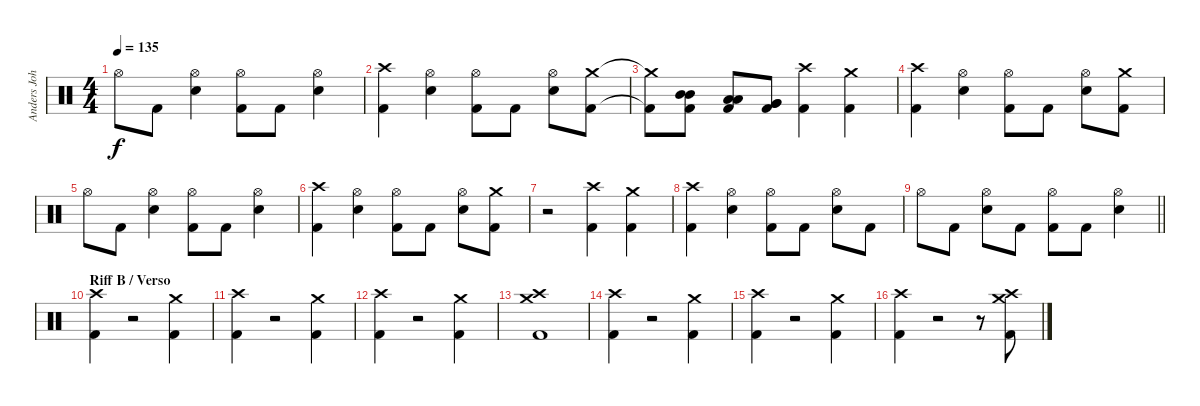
\track ("Anders Johansson" "Anders Joh") {instrument percussion}
\staff {score}
\articulation defaults
\ts (4 4)
\tempo 135
\clef neutral
\ks c "Hi-Hat (open)".8{dy f} "Kick (hit) 2".8
("Hi-Hat (open)" "Snare (hit) 2").4 ("Hi-Hat (open)" "Kick (hit) 2").8 "Kick (hit) 2".8 ("Hi-Hat (open)" "Snare (hit) 2").4 |
("Crash high (hit)" "Kick (hit) 2").4 ("Hi-Hat (open)" "Snare (hit) 2").4 ("Hi-Hat (open)" "Kick (hit) 2").8 "Kick (hit) 2".8 ("Hi-Hat (open)" "Snare (hit) 2").8 ("Crash medium (hit)" "Kick (hit) 2").8 |
("Crash medium (hit)"{t} "Kick (hit) 2"{t}).8 ("Mid Tom (hit)" "Mid Tom (hit)" "Kick (hit) 2").8 ("Low Tom (hit)" "Low Tom (hit)" "Kick (hit) 2").8 ("Very Low Tom (hit)" "Very Low Tom (hit)" "Kick (hit) 2").8 ("Crash high (hit)" "Kick (hit) 2").4 ("Crash medium (hit)" "Kick (hit) 2").4 |
("Crash high (hit)" "Kick (hit) 2").4 ("Hi-Hat (open)" "Snare (hit) 2").4 ("Hi-Hat (open)" "Kick (hit) 2").8 "Kick (hit) 2".8 ("Hi-Hat (open)" "Snare (hit) 2").8 ("Crash medium (hit)" "Kick (hit) 2").8 |
"Hi-Hat (open)".8 "Kick (hit) 2".8 ("Hi-Hat (open)" "Snare (hit) 2").4 ("Hi-Hat (open)" "Kick (hit) 2").8 "Kick (hit) 2".8 ("Hi-Hat (open)" "Snare (hit) 2").4 |
("Crash high (hit)" "Kick (hit) 2").4 ("Hi-Hat (open)" "Snare (hit) 2").4 ("Hi-Hat (open)" "Kick (hit) 2").8 "Kick (hit) 2".8 ("Hi-Hat (open)" "Snare (hit) 2").8 ("Crash medium (hit)" "Kick (hit) 2").8 |
r.2 ("Crash high (hit)" "Kick (hit) 2").4 ("Crash medium (hit)" "Kick (hit) 2").4 |
("Crash high (hit)" "Kick (hit) 2").4 ("Hi-Hat (open)" "Snare (hit) 2").4 ("Hi-Hat (open)" "Kick (hit) 2").8 "Kick (hit) 2".8 ("Hi-Hat (open)" "Snare (hit) 2").8 "Kick (hit) 2".8 |
\barLineRight lightlight "Hi-Hat (open)".8 "Kick (hit) 2".8
("Hi-Hat (open)" "Snare (hit) 2").8 "Kick (hit) 2".8 ("Hi-Hat (open)" "Kick (hit) 2").8 "Kick (hit) 2".8 ("Hi-Hat (open)" "Snare (hit) 2").4 |
\section ("" "Riff B / Verso")
("Crash high (hit)" "Kick (hit) 2").4 r.2 ("Crash medium (hit)" "Kick (hit) 2").4 |
("Crash high (hit)" "Kick (hit) 2").4 r.2 ("Crash medium (hit)" "Kick (hit) 2").4 |
("Crash high (hit)" "Kick (hit) 2").4 r.2 ("Crash medium (hit)" "Kick (hit) 2").4 |
("Crash medium (hit)" "Crash high (hit)" "Kick (hit) 2").1 |
("Crash high (hit)" "Kick (hit) 2").4 r.2 ("Crash medium (hit)" "Kick (hit) 2").4 |
("Crash high (hit)" "Kick (hit) 2").4 r.2 ("Crash medium (hit)" "Kick (hit) 2").4 |
("Crash high (hit)" "Kick (hit) 2").4 r.2 r.8 ("Crash medium (hit)" "Crash high (hit)" "Kick (hit) 2").8
